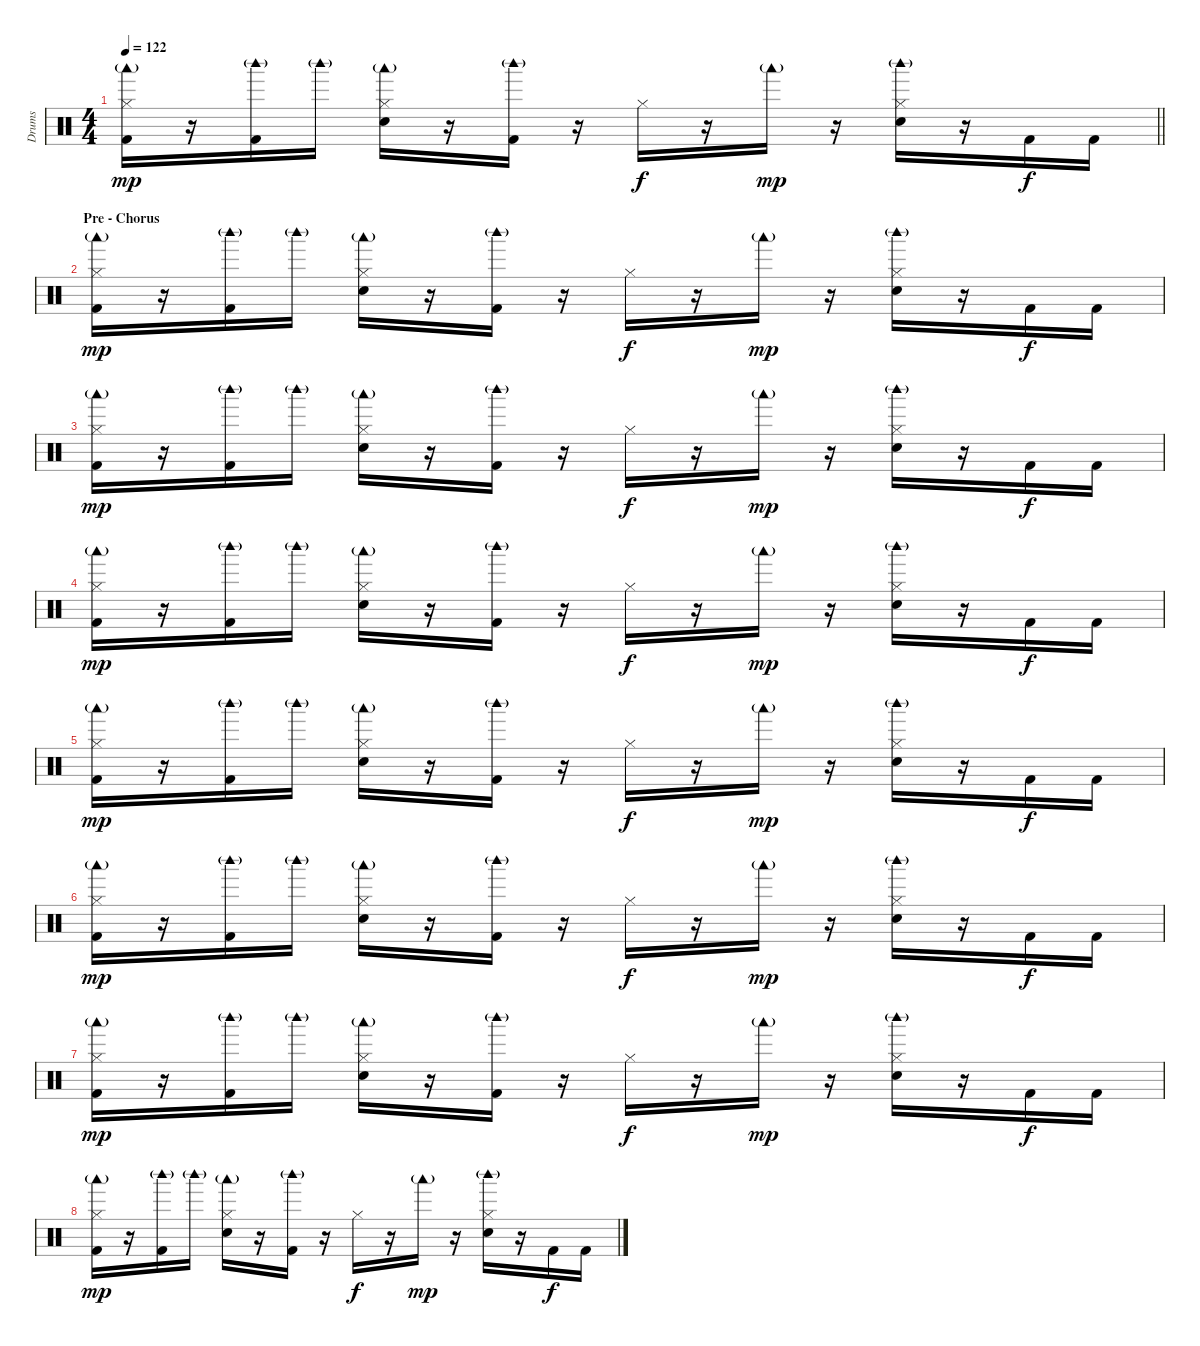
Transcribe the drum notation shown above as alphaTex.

\track ("Drums" "Drums") {instrument percussion}
\staff {score}
\articulation defaults
\ts (4 4)
\tempo 122
\clef neutral
\barLineRight lightlight
\ks c
("Hi-Hat (closed)" "Woodblock low (hit)"{g} "Kick (hit) 2").16{dy mp} r.16 ("Woodblock high (hit)"{g} "Kick (hit) 2").16 "Woodblock high (hit)"{g}.16 ("Hi-Hat (closed)" "Hand Clap (hit)" "Woodblock low (hit)"{g}).16 r.16 ("Woodblock high (hit)"{g} "Kick (hit) 2").16 r.16 "Hi-Hat (closed)".16{dy f} r.16 "Woodblock low (hit)"{g}.16{dy mp} r.16 ("Hi-Hat (closed)" "Hand Clap (hit)" "Woodblock high (hit)"{g}).16 r.16 "Kick (hit) 2".16{dy f} "Kick (hit) 2".16 |
\section ("" "Pre - Chorus")
("Hi-Hat (closed)" "Woodblock low (hit)"{g} "Kick (hit) 2").16{dy mp} r.16 ("Woodblock high (hit)"{g} "Kick (hit) 2").16 "Woodblock high (hit)"{g}.16 ("Hi-Hat (closed)" "Hand Clap (hit)" "Woodblock low (hit)"{g}).16 r.16 ("Woodblock high (hit)"{g} "Kick (hit) 2").16 r.16 "Hi-Hat (closed)".16{dy f} r.16 "Woodblock low (hit)"{g}.16{dy mp} r.16 ("Hi-Hat (closed)" "Hand Clap (hit)" "Woodblock high (hit)"{g}).16 r.16 "Kick (hit) 2".16{dy f} "Kick (hit) 2".16 |
("Hi-Hat (closed)" "Woodblock low (hit)"{g} "Kick (hit) 2").16{dy mp} r.16 ("Woodblock high (hit)"{g} "Kick (hit) 2").16 "Woodblock high (hit)"{g}.16 ("Hi-Hat (closed)" "Hand Clap (hit)" "Woodblock low (hit)"{g}).16 r.16 ("Woodblock high (hit)"{g} "Kick (hit) 2").16 r.16 "Hi-Hat (closed)".16{dy f} r.16 "Woodblock low (hit)"{g}.16{dy mp} r.16 ("Hi-Hat (closed)" "Hand Clap (hit)" "Woodblock high (hit)"{g}).16 r.16 "Kick (hit) 2".16{dy f} "Kick (hit) 2".16 |
("Hi-Hat (closed)" "Woodblock low (hit)"{g} "Kick (hit) 2").16{dy mp} r.16 ("Woodblock high (hit)"{g} "Kick (hit) 2").16 "Woodblock high (hit)"{g}.16 ("Hi-Hat (closed)" "Hand Clap (hit)" "Woodblock low (hit)"{g}).16 r.16 ("Woodblock high (hit)"{g} "Kick (hit) 2").16 r.16 "Hi-Hat (closed)".16{dy f} r.16 "Woodblock low (hit)"{g}.16{dy mp} r.16 ("Hi-Hat (closed)" "Hand Clap (hit)" "Woodblock high (hit)"{g}).16 r.16 "Kick (hit) 2".16{dy f} "Kick (hit) 2".16 |
("Hi-Hat (closed)" "Woodblock low (hit)"{g} "Kick (hit) 2").16{dy mp} r.16 ("Woodblock high (hit)"{g} "Kick (hit) 2").16 "Woodblock high (hit)"{g}.16 ("Hi-Hat (closed)" "Hand Clap (hit)" "Woodblock low (hit)"{g}).16 r.16 ("Woodblock high (hit)"{g} "Kick (hit) 2").16 r.16 "Hi-Hat (closed)".16{dy f} r.16 "Woodblock low (hit)"{g}.16{dy mp} r.16 ("Hi-Hat (closed)" "Hand Clap (hit)" "Woodblock high (hit)"{g}).16 r.16 "Kick (hit) 2".16{dy f} "Kick (hit) 2".16 |
("Hi-Hat (closed)" "Woodblock low (hit)"{g} "Kick (hit) 2").16{dy mp} r.16 ("Woodblock high (hit)"{g} "Kick (hit) 2").16 "Woodblock high (hit)"{g}.16 ("Hi-Hat (closed)" "Hand Clap (hit)" "Woodblock low (hit)"{g}).16 r.16 ("Woodblock high (hit)"{g} "Kick (hit) 2").16 r.16 "Hi-Hat (closed)".16{dy f} r.16 "Woodblock low (hit)"{g}.16{dy mp} r.16 ("Hi-Hat (closed)" "Hand Clap (hit)" "Woodblock high (hit)"{g}).16 r.16 "Kick (hit) 2".16{dy f} "Kick (hit) 2".16 |
("Hi-Hat (closed)" "Woodblock low (hit)"{g} "Kick (hit) 2").16{dy mp} r.16 ("Woodblock high (hit)"{g} "Kick (hit) 2").16 "Woodblock high (hit)"{g}.16 ("Hi-Hat (closed)" "Hand Clap (hit)" "Woodblock low (hit)"{g}).16 r.16 ("Woodblock high (hit)"{g} "Kick (hit) 2").16 r.16 "Hi-Hat (closed)".16{dy f} r.16 "Woodblock low (hit)"{g}.16{dy mp} r.16 ("Hi-Hat (closed)" "Hand Clap (hit)" "Woodblock high (hit)"{g}).16 r.16 "Kick (hit) 2".16{dy f} "Kick (hit) 2".16 |
("Hi-Hat (closed)" "Woodblock low (hit)"{g} "Kick (hit) 2").16{dy mp} r.16 ("Woodblock high (hit)"{g} "Kick (hit) 2").16 "Woodblock high (hit)"{g}.16 ("Hi-Hat (closed)" "Hand Clap (hit)" "Woodblock low (hit)"{g}).16 r.16 ("Woodblock high (hit)"{g} "Kick (hit) 2").16 r.16 "Hi-Hat (closed)".16{dy f} r.16 "Woodblock low (hit)"{g}.16{dy mp} r.16 ("Hi-Hat (closed)" "Hand Clap (hit)" "Woodblock high (hit)"{g}).16 r.16 "Kick (hit) 2".16{dy f} "Kick (hit) 2".16
